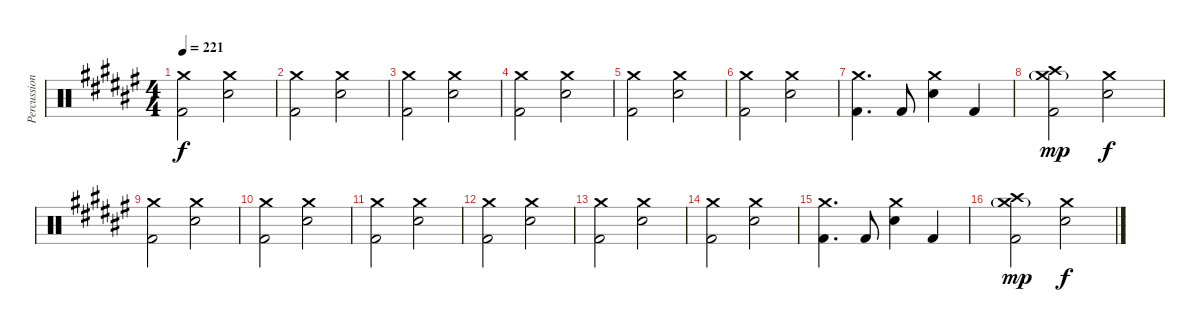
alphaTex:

\track ("Percussions" "Percussion") {instrument percussion}
\staff {score}
\articulation defaults
\ts (4 4)
\tempo 221
\clef neutral
\ks d#minor
("Crash medium (hit)" "Kick (hit) 2").2{dy f} ("Crash medium (hit)" "Electric Snare (hit)").2 |
("Crash medium (hit)" "Kick (hit) 2").2 ("Crash medium (hit)" "Electric Snare (hit)").2 |
("Crash medium (hit)" "Kick (hit) 2").2 ("Crash medium (hit)" "Electric Snare (hit)").2 |
("Crash medium (hit)" "Kick (hit) 2").2 ("Crash medium (hit)" "Electric Snare (hit)").2 |
("Crash medium (hit)" "Kick (hit) 2").2 ("Crash medium (hit)" "Electric Snare (hit)").2 |
("Crash medium (hit)" "Kick (hit) 2").2 ("Crash medium (hit)" "Electric Snare (hit)").2 |
("Crash medium (hit)" "Kick (hit) 2").4{d} "Kick (hit) 2".8 ("Crash medium (hit)" "Electric Snare (hit)").4 "Kick (hit) 2".4 |
("Crash medium (hit)"{g} "Crash high (hit)" "Kick (hit) 2").2{dy mp} ("Crash medium (hit)" "Electric Snare (hit)").2{dy f} |
("Crash medium (hit)" "Kick (hit) 2").2 ("Crash medium (hit)" "Electric Snare (hit)").2 |
("Crash medium (hit)" "Kick (hit) 2").2 ("Crash medium (hit)" "Electric Snare (hit)").2 |
("Crash medium (hit)" "Kick (hit) 2").2 ("Crash medium (hit)" "Electric Snare (hit)").2 |
("Crash medium (hit)" "Kick (hit) 2").2 ("Crash medium (hit)" "Electric Snare (hit)").2 |
("Crash medium (hit)" "Kick (hit) 2").2 ("Crash medium (hit)" "Electric Snare (hit)").2 |
("Crash medium (hit)" "Kick (hit) 2").2 ("Crash medium (hit)" "Electric Snare (hit)").2 |
("Crash medium (hit)" "Kick (hit) 2").4{d} "Kick (hit) 2".8 ("Crash medium (hit)" "Electric Snare (hit)").4 "Kick (hit) 2".4 |
("Crash medium (hit)"{g} "Crash high (hit)" "Kick (hit) 2").2{dy mp} ("Crash medium (hit)" "Electric Snare (hit)").2{dy f}
